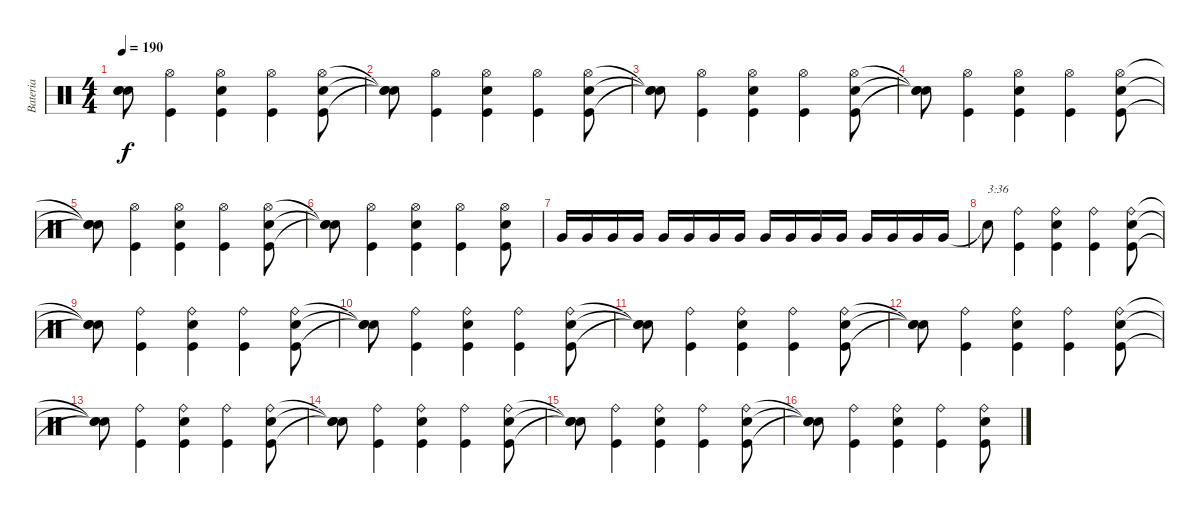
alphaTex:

\track ("Bateria" "Bateria") {instrument percussion}
\staff {score}
\articulation defaults
\ts (4 4)
\tempo 190
\clef neutral
\ks c
("Snare (hit)"{t} "Snare (hit)"{t} "Snare (hit)"{t}).8{dy f} ("Kick (hit)" "Hi-Hat (open)").4 ("Kick (hit)" "Snare (hit) 2" "Hi-Hat (open)").4 ("Kick (hit)" "Hi-Hat (open)").4 ("Kick (hit)" "Snare (hit) 2" "Hi-Hat (open)").8 |
("Snare (hit)"{t} "Snare (hit)"{t} "Snare (hit)"{t}).8 ("Kick (hit)" "Hi-Hat (open)").4 ("Kick (hit)" "Snare (hit) 2" "Hi-Hat (open)").4 ("Kick (hit)" "Hi-Hat (open)").4 ("Kick (hit)" "Snare (hit) 2" "Hi-Hat (open)").8 |
("Snare (hit)"{t} "Snare (hit)"{t} "Snare (hit)"{t}).8 ("Kick (hit)" "Hi-Hat (open)").4 ("Kick (hit)" "Snare (hit) 2" "Hi-Hat (open)").4 ("Kick (hit)" "Hi-Hat (open)").4 ("Kick (hit)" "Snare (hit) 2" "Hi-Hat (open)").8 |
("Snare (hit)"{t} "Snare (hit)"{t} "Snare (hit)"{t}).8 ("Kick (hit)" "Hi-Hat (open)").4 ("Kick (hit)" "Snare (hit) 2" "Hi-Hat (open)").4 ("Kick (hit)" "Hi-Hat (open)").4 ("Kick (hit)" "Snare (hit) 2" "Hi-Hat (open)").8 |
("Snare (hit)"{t} "Snare (hit)"{t} "Snare (hit)"{t}).8 ("Kick (hit)" "Hi-Hat (open)").4 ("Kick (hit)" "Snare (hit) 2" "Hi-Hat (open)").4 ("Kick (hit)" "Hi-Hat (open)").4 ("Kick (hit)" "Snare (hit) 2" "Hi-Hat (open)").8 |
("Snare (hit)"{t} "Snare (hit)"{t} "Snare (hit)"{t}).8 ("Kick (hit)" "Hi-Hat (open)").4 ("Kick (hit)" "Snare (hit) 2" "Hi-Hat (open)").4 ("Kick (hit)" "Hi-Hat (open)").4 ("Kick (hit)" "Snare (hit) 2" "Hi-Hat (open)").8 |
"Very Low Tom (hit)".16 "Very Low Tom (hit)".16 "Very Low Tom (hit)".16 "Very Low Tom (hit)".16 "Very Low Tom (hit)".16 "Very Low Tom (hit)".16 "Very Low Tom (hit)".16 "Very Low Tom (hit)".16 "Very Low Tom (hit)".16 "Very Low Tom (hit)".16 "Very Low Tom (hit)".16 "Very Low Tom (hit)".16 "Very Low Tom (hit)".16 "Very Low Tom (hit)".16 "Very Low Tom (hit)".16 "Very Low Tom (hit)".16 |
"Snare (hit)"{t}.8{txt "3:36"} ("Kick (hit)" "Ride (bell)").4 ("Kick (hit)" "Snare (hit) 2" "Ride (bell)").4 ("Kick (hit)" "Ride (bell)").4 ("Kick (hit)" "Snare (hit) 2" "Ride (bell)").8 |
("Snare (hit)"{t} "Snare (hit)"{t} "Snare (hit)"{t}).8 ("Kick (hit)" "Ride (bell)").4 ("Kick (hit)" "Snare (hit) 2" "Ride (bell)").4 ("Kick (hit)" "Ride (bell)").4 ("Kick (hit)" "Snare (hit) 2" "Ride (bell)").8 |
("Snare (hit)"{t} "Snare (hit)"{t} "Snare (hit)"{t}).8 ("Kick (hit)" "Ride (bell)").4 ("Kick (hit)" "Snare (hit) 2" "Ride (bell)").4 ("Kick (hit)" "Ride (bell)").4 ("Kick (hit)" "Snare (hit) 2" "Ride (bell)").8 |
("Snare (hit)"{t} "Snare (hit)"{t} "Snare (hit)"{t}).8 ("Kick (hit)" "Ride (bell)").4 ("Kick (hit)" "Snare (hit) 2" "Ride (bell)").4 ("Kick (hit)" "Ride (bell)").4 ("Kick (hit)" "Snare (hit) 2" "Ride (bell)").8 |
("Snare (hit)"{t} "Snare (hit)"{t} "Snare (hit)"{t}).8 ("Kick (hit)" "Ride (bell)").4 ("Kick (hit)" "Snare (hit) 2" "Ride (bell)").4 ("Kick (hit)" "Ride (bell)").4 ("Kick (hit)" "Snare (hit) 2" "Ride (bell)").8 |
("Snare (hit)"{t} "Snare (hit)"{t} "Snare (hit)"{t}).8 ("Kick (hit)" "Ride (bell)").4 ("Kick (hit)" "Snare (hit) 2" "Ride (bell)").4 ("Kick (hit)" "Ride (bell)").4 ("Kick (hit)" "Snare (hit) 2" "Ride (bell)").8 |
("Snare (hit)"{t} "Snare (hit)"{t} "Snare (hit)"{t}).8 ("Kick (hit)" "Ride (bell)").4 ("Kick (hit)" "Snare (hit) 2" "Ride (bell)").4 ("Kick (hit)" "Ride (bell)").4 ("Kick (hit)" "Snare (hit) 2" "Ride (bell)").8 |
("Snare (hit)"{t} "Snare (hit)"{t} "Snare (hit)"{t}).8 ("Kick (hit)" "Ride (bell)").4 ("Kick (hit)" "Snare (hit) 2" "Ride (bell)").4 ("Kick (hit)" "Ride (bell)").4 ("Kick (hit)" "Snare (hit) 2" "Ride (bell)").8 |
("Snare (hit)"{t} "Snare (hit)"{t} "Snare (hit)"{t}).8 ("Kick (hit)" "Ride (bell)").4 ("Kick (hit)" "Snare (hit) 2" "Ride (bell)").4 ("Kick (hit)" "Ride (bell)").4 ("Kick (hit)" "Snare (hit) 2" "Ride (bell)").8
